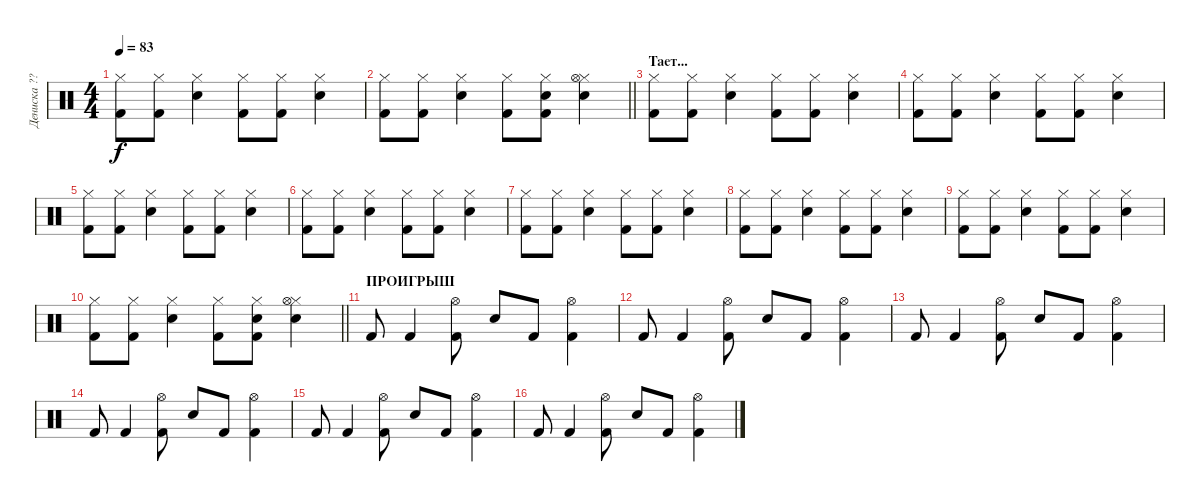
\track ("Дениска ??" "Дениска ??") {instrument percussion}
\staff {score}
\articulation defaults
\ts (4 4)
\tempo 83
\clef neutral
\ks c
("Hi-Hat (closed)" "Kick (hit) 2").8{dy f} ("Hi-Hat (closed)" "Kick (hit) 2").8 ("Hi-Hat (closed)" "Electric Snare (hit)").4 ("Hi-Hat (closed)" "Kick (hit) 2").8 ("Hi-Hat (closed)" "Kick (hit) 2").8 ("Hi-Hat (closed)" "Electric Snare (hit)").4 |
\barLineRight lightlight
("Hi-Hat (closed)" "Kick (hit) 2").8 ("Hi-Hat (closed)" "Kick (hit) 2").8 ("Hi-Hat (closed)" "Electric Snare (hit)").4 ("Hi-Hat (closed)" "Kick (hit) 2").8 ("Hi-Hat (closed)" "Kick (hit) 2" "Electric Snare (hit)").8 ("Hi-Hat (closed)" "Hi-Hat (open)" "Snare (hit) 2").4 |
\section ("" "Тает...")
("Hi-Hat (closed)" "Kick (hit) 2").8 ("Hi-Hat (closed)" "Kick (hit) 2").8 ("Hi-Hat (closed)" "Electric Snare (hit)").4 ("Hi-Hat (closed)" "Kick (hit) 2").8 ("Hi-Hat (closed)" "Kick (hit) 2").8 ("Hi-Hat (closed)" "Electric Snare (hit)").4 |
("Hi-Hat (closed)" "Kick (hit) 2").8 ("Hi-Hat (closed)" "Kick (hit) 2").8 ("Hi-Hat (closed)" "Electric Snare (hit)").4 ("Hi-Hat (closed)" "Kick (hit) 2").8 ("Hi-Hat (closed)" "Kick (hit) 2").8 ("Hi-Hat (closed)" "Electric Snare (hit)").4 |
("Hi-Hat (closed)" "Kick (hit) 2").8 ("Hi-Hat (closed)" "Kick (hit) 2").8 ("Hi-Hat (closed)" "Electric Snare (hit)").4 ("Hi-Hat (closed)" "Kick (hit) 2").8 ("Hi-Hat (closed)" "Kick (hit) 2").8 ("Hi-Hat (closed)" "Electric Snare (hit)").4 |
("Hi-Hat (closed)" "Kick (hit) 2").8 ("Hi-Hat (closed)" "Kick (hit) 2").8 ("Hi-Hat (closed)" "Electric Snare (hit)").4 ("Hi-Hat (closed)" "Kick (hit) 2").8 ("Hi-Hat (closed)" "Kick (hit) 2").8 ("Hi-Hat (closed)" "Electric Snare (hit)").4 |
("Hi-Hat (closed)" "Kick (hit) 2").8 ("Hi-Hat (closed)" "Kick (hit) 2").8 ("Hi-Hat (closed)" "Electric Snare (hit)").4 ("Hi-Hat (closed)" "Kick (hit) 2").8 ("Hi-Hat (closed)" "Kick (hit) 2").8 ("Hi-Hat (closed)" "Electric Snare (hit)").4 |
("Hi-Hat (closed)" "Kick (hit) 2").8 ("Hi-Hat (closed)" "Kick (hit) 2").8 ("Hi-Hat (closed)" "Electric Snare (hit)").4 ("Hi-Hat (closed)" "Kick (hit) 2").8 ("Hi-Hat (closed)" "Kick (hit) 2").8 ("Hi-Hat (closed)" "Electric Snare (hit)").4 |
("Hi-Hat (closed)" "Kick (hit) 2").8 ("Hi-Hat (closed)" "Kick (hit) 2").8 ("Hi-Hat (closed)" "Electric Snare (hit)").4 ("Hi-Hat (closed)" "Kick (hit) 2").8 ("Hi-Hat (closed)" "Kick (hit) 2").8 ("Hi-Hat (closed)" "Electric Snare (hit)").4 |
\barLineRight lightlight
("Hi-Hat (closed)" "Kick (hit) 2").8 ("Hi-Hat (closed)" "Kick (hit) 2").8 ("Hi-Hat (closed)" "Electric Snare (hit)").4 ("Hi-Hat (closed)" "Kick (hit) 2").8 ("Hi-Hat (closed)" "Kick (hit) 2" "Electric Snare (hit)").8 ("Hi-Hat (closed)" "Hi-Hat (open)" "Snare (hit) 2").4 |
\section ("" "ПРОИГРЫШ")
"Kick (hit) 2".8 "Kick (hit) 2".4 ("Hi-Hat (open)" "Kick (hit) 2").8 "Electric Snare (hit)".8 "Kick (hit) 2".8 ("Hi-Hat (open)" "Kick (hit) 2").4 |
"Kick (hit) 2".8 "Kick (hit) 2".4 ("Hi-Hat (open)" "Kick (hit) 2").8 "Electric Snare (hit)".8 "Kick (hit) 2".8 ("Hi-Hat (open)" "Kick (hit) 2").4 |
"Kick (hit) 2".8 "Kick (hit) 2".4 ("Hi-Hat (open)" "Kick (hit) 2").8 "Electric Snare (hit)".8 "Kick (hit) 2".8 ("Hi-Hat (open)" "Kick (hit) 2").4 |
"Kick (hit) 2".8 "Kick (hit) 2".4 ("Hi-Hat (open)" "Kick (hit) 2").8 "Electric Snare (hit)".8 "Kick (hit) 2".8 ("Hi-Hat (open)" "Kick (hit) 2").4 |
"Kick (hit) 2".8 "Kick (hit) 2".4 ("Hi-Hat (open)" "Kick (hit) 2").8 "Electric Snare (hit)".8 "Kick (hit) 2".8 ("Hi-Hat (open)" "Kick (hit) 2").4 |
"Kick (hit) 2".8 "Kick (hit) 2".4 ("Hi-Hat (open)" "Kick (hit) 2").8 "Electric Snare (hit)".8 "Kick (hit) 2".8 ("Hi-Hat (open)" "Kick (hit) 2").4
